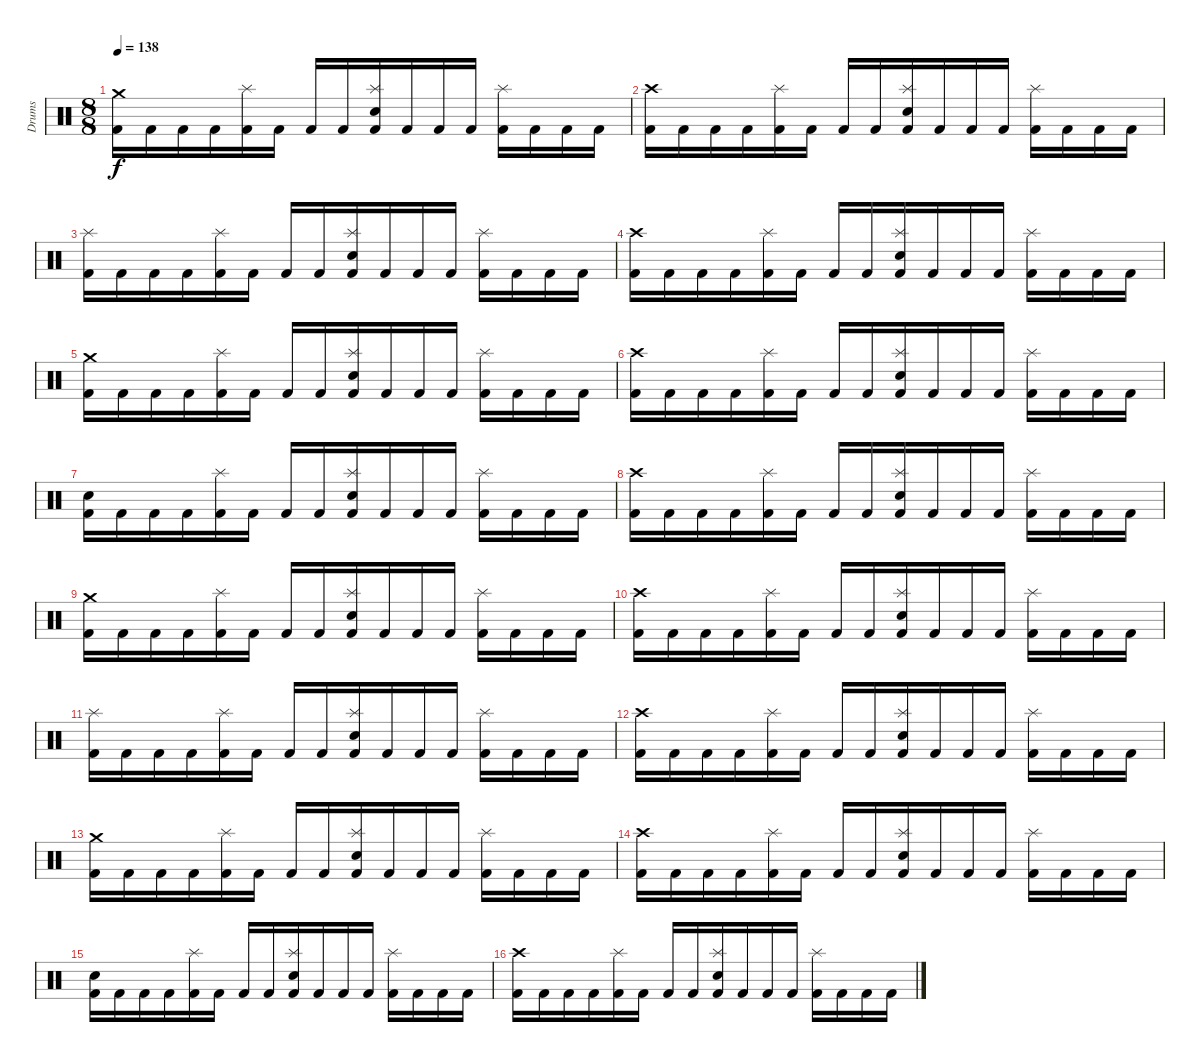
\track ("Drums" "Drums") {instrument percussion}
\staff {score}
\articulation defaults
\ts (8 8)
\tempo 138
\clef neutral
\ks c
("Crash medium (hit)" "Kick (hit) 2").16{dy f} "Kick (hit) 2".16 "Kick (hit) 2".16 "Kick (hit) 2".16 ("Splash (hit)" "Kick (hit) 2").16 "Kick (hit) 2".16 "Kick (hit) 2".16 "Kick (hit) 2".16 ("Splash (hit)" "Snare (hit) 2" "Kick (hit) 2").16 "Kick (hit) 2".16 "Kick (hit) 2".16 "Kick (hit) 2".16 ("Splash (hit)" "Kick (hit) 2").16 "Kick (hit) 2".16 "Kick (hit) 2".16 "Kick (hit) 2".16 |
("Crash high (hit)" "Kick (hit) 2").16{volume 11} "Kick (hit) 2".16 "Kick (hit) 2".16 "Kick (hit) 2".16 ("Splash (hit)" "Kick (hit) 2").16 "Kick (hit) 2".16 "Kick (hit) 2".16 "Kick (hit) 2".16 ("Splash (hit)" "Snare (hit) 2" "Kick (hit) 2").16 "Kick (hit) 2".16 "Kick (hit) 2".16 "Kick (hit) 2".16 ("Splash (hit)" "Kick (hit) 2").16 "Kick (hit) 2".16 "Kick (hit) 2".16 "Kick (hit) 2".16 |
("Splash (hit)" "Kick (hit) 2").16 "Kick (hit) 2".16 "Kick (hit) 2".16 "Kick (hit) 2".16 ("Splash (hit)" "Kick (hit) 2").16 "Kick (hit) 2".16 "Kick (hit) 2".16 "Kick (hit) 2".16 ("Splash (hit)" "Snare (hit) 2" "Kick (hit) 2").16 "Kick (hit) 2".16 "Kick (hit) 2".16 "Kick (hit) 2".16 ("Splash (hit)" "Kick (hit) 2").16 "Kick (hit) 2".16 "Kick (hit) 2".16 "Kick (hit) 2".16 |
("Crash high (hit)" "Kick (hit) 2").16{volume 10} "Kick (hit) 2".16 "Kick (hit) 2".16 "Kick (hit) 2".16 ("Splash (hit)" "Kick (hit) 2").16 "Kick (hit) 2".16 "Kick (hit) 2".16 "Kick (hit) 2".16 ("Splash (hit)" "Snare (hit) 2" "Kick (hit) 2").16 "Kick (hit) 2".16 "Kick (hit) 2".16 "Kick (hit) 2".16 ("Splash (hit)" "Kick (hit) 2").16 "Kick (hit) 2".16 "Kick (hit) 2".16 "Kick (hit) 2".16 |
("Crash medium (hit)" "Kick (hit) 2").16 "Kick (hit) 2".16 "Kick (hit) 2".16 "Kick (hit) 2".16 ("Splash (hit)" "Kick (hit) 2").16 "Kick (hit) 2".16 "Kick (hit) 2".16 "Kick (hit) 2".16 ("Splash (hit)" "Snare (hit) 2" "Kick (hit) 2").16 "Kick (hit) 2".16 "Kick (hit) 2".16 "Kick (hit) 2".16 ("Splash (hit)" "Kick (hit) 2").16 "Kick (hit) 2".16 "Kick (hit) 2".16 "Kick (hit) 2".16 |
("Crash high (hit)" "Kick (hit) 2").16{volume 9} "Kick (hit) 2".16 "Kick (hit) 2".16 "Kick (hit) 2".16 ("Splash (hit)" "Kick (hit) 2").16 "Kick (hit) 2".16 "Kick (hit) 2".16 "Kick (hit) 2".16 ("Splash (hit)" "Snare (hit) 2" "Kick (hit) 2").16 "Kick (hit) 2".16 "Kick (hit) 2".16 "Kick (hit) 2".16 ("Splash (hit)" "Kick (hit) 2").16 "Kick (hit) 2".16 "Kick (hit) 2".16 "Kick (hit) 2".16 |
("Snare (hit) 2" "Kick (hit) 2").16 "Kick (hit) 2".16 "Kick (hit) 2".16 "Kick (hit) 2".16 ("Splash (hit)" "Kick (hit) 2").16 "Kick (hit) 2".16 "Kick (hit) 2".16 "Kick (hit) 2".16 ("Splash (hit)" "Snare (hit) 2" "Kick (hit) 2").16 "Kick (hit) 2".16 "Kick (hit) 2".16 "Kick (hit) 2".16 ("Splash (hit)" "Kick (hit) 2").16 "Kick (hit) 2".16 "Kick (hit) 2".16 "Kick (hit) 2".16 |
("Crash high (hit)" "Kick (hit) 2").16{volume 8} "Kick (hit) 2".16 "Kick (hit) 2".16 "Kick (hit) 2".16 ("Splash (hit)" "Kick (hit) 2").16 "Kick (hit) 2".16 "Kick (hit) 2".16 "Kick (hit) 2".16 ("Splash (hit)" "Snare (hit) 2" "Kick (hit) 2").16 "Kick (hit) 2".16 "Kick (hit) 2".16 "Kick (hit) 2".16 ("Splash (hit)" "Kick (hit) 2").16 "Kick (hit) 2".16 "Kick (hit) 2".16 "Kick (hit) 2".16 |
("Crash medium (hit)" "Kick (hit) 2").16 "Kick (hit) 2".16 "Kick (hit) 2".16 "Kick (hit) 2".16 ("Splash (hit)" "Kick (hit) 2").16 "Kick (hit) 2".16 "Kick (hit) 2".16 "Kick (hit) 2".16 ("Splash (hit)" "Snare (hit) 2" "Kick (hit) 2").16 "Kick (hit) 2".16 "Kick (hit) 2".16 "Kick (hit) 2".16 ("Splash (hit)" "Kick (hit) 2").16 "Kick (hit) 2".16 "Kick (hit) 2".16 "Kick (hit) 2".16 |
("Crash high (hit)" "Kick (hit) 2").16{volume 7} "Kick (hit) 2".16 "Kick (hit) 2".16 "Kick (hit) 2".16 ("Splash (hit)" "Kick (hit) 2").16 "Kick (hit) 2".16 "Kick (hit) 2".16 "Kick (hit) 2".16 ("Splash (hit)" "Snare (hit) 2" "Kick (hit) 2").16 "Kick (hit) 2".16 "Kick (hit) 2".16 "Kick (hit) 2".16 ("Splash (hit)" "Kick (hit) 2").16 "Kick (hit) 2".16 "Kick (hit) 2".16 "Kick (hit) 2".16 |
("Splash (hit)" "Kick (hit) 2").16 "Kick (hit) 2".16 "Kick (hit) 2".16 "Kick (hit) 2".16 ("Splash (hit)" "Kick (hit) 2").16 "Kick (hit) 2".16 "Kick (hit) 2".16 "Kick (hit) 2".16 ("Splash (hit)" "Snare (hit) 2" "Kick (hit) 2").16 "Kick (hit) 2".16 "Kick (hit) 2".16 "Kick (hit) 2".16 ("Splash (hit)" "Kick (hit) 2").16 "Kick (hit) 2".16 "Kick (hit) 2".16 "Kick (hit) 2".16 |
("Crash high (hit)" "Kick (hit) 2").16{volume 6} "Kick (hit) 2".16 "Kick (hit) 2".16 "Kick (hit) 2".16 ("Splash (hit)" "Kick (hit) 2").16 "Kick (hit) 2".16 "Kick (hit) 2".16 "Kick (hit) 2".16 ("Splash (hit)" "Snare (hit) 2" "Kick (hit) 2").16 "Kick (hit) 2".16 "Kick (hit) 2".16 "Kick (hit) 2".16 ("Splash (hit)" "Kick (hit) 2").16 "Kick (hit) 2".16 "Kick (hit) 2".16 "Kick (hit) 2".16 |
("Crash medium (hit)" "Kick (hit) 2").16 "Kick (hit) 2".16 "Kick (hit) 2".16 "Kick (hit) 2".16 ("Splash (hit)" "Kick (hit) 2").16 "Kick (hit) 2".16 "Kick (hit) 2".16 "Kick (hit) 2".16 ("Splash (hit)" "Snare (hit) 2" "Kick (hit) 2").16 "Kick (hit) 2".16 "Kick (hit) 2".16 "Kick (hit) 2".16 ("Splash (hit)" "Kick (hit) 2").16 "Kick (hit) 2".16 "Kick (hit) 2".16 "Kick (hit) 2".16 |
("Crash high (hit)" "Kick (hit) 2").16{volume 5} "Kick (hit) 2".16 "Kick (hit) 2".16 "Kick (hit) 2".16 ("Splash (hit)" "Kick (hit) 2").16 "Kick (hit) 2".16 "Kick (hit) 2".16 "Kick (hit) 2".16 ("Splash (hit)" "Snare (hit) 2" "Kick (hit) 2").16 "Kick (hit) 2".16 "Kick (hit) 2".16 "Kick (hit) 2".16 ("Splash (hit)" "Kick (hit) 2").16 "Kick (hit) 2".16 "Kick (hit) 2".16 "Kick (hit) 2".16 |
("Snare (hit) 2" "Kick (hit) 2").16 "Kick (hit) 2".16 "Kick (hit) 2".16 "Kick (hit) 2".16 ("Splash (hit)" "Kick (hit) 2").16 "Kick (hit) 2".16 "Kick (hit) 2".16 "Kick (hit) 2".16 ("Splash (hit)" "Snare (hit) 2" "Kick (hit) 2").16 "Kick (hit) 2".16 "Kick (hit) 2".16 "Kick (hit) 2".16 ("Splash (hit)" "Kick (hit) 2").16 "Kick (hit) 2".16 "Kick (hit) 2".16 "Kick (hit) 2".16 |
("Crash high (hit)" "Kick (hit) 2").16{volume 4} "Kick (hit) 2".16 "Kick (hit) 2".16 "Kick (hit) 2".16 ("Splash (hit)" "Kick (hit) 2").16 "Kick (hit) 2".16 "Kick (hit) 2".16 "Kick (hit) 2".16 ("Splash (hit)" "Snare (hit) 2" "Kick (hit) 2").16 "Kick (hit) 2".16 "Kick (hit) 2".16 "Kick (hit) 2".16 ("Splash (hit)" "Kick (hit) 2").16 "Kick (hit) 2".16 "Kick (hit) 2".16 "Kick (hit) 2".16
